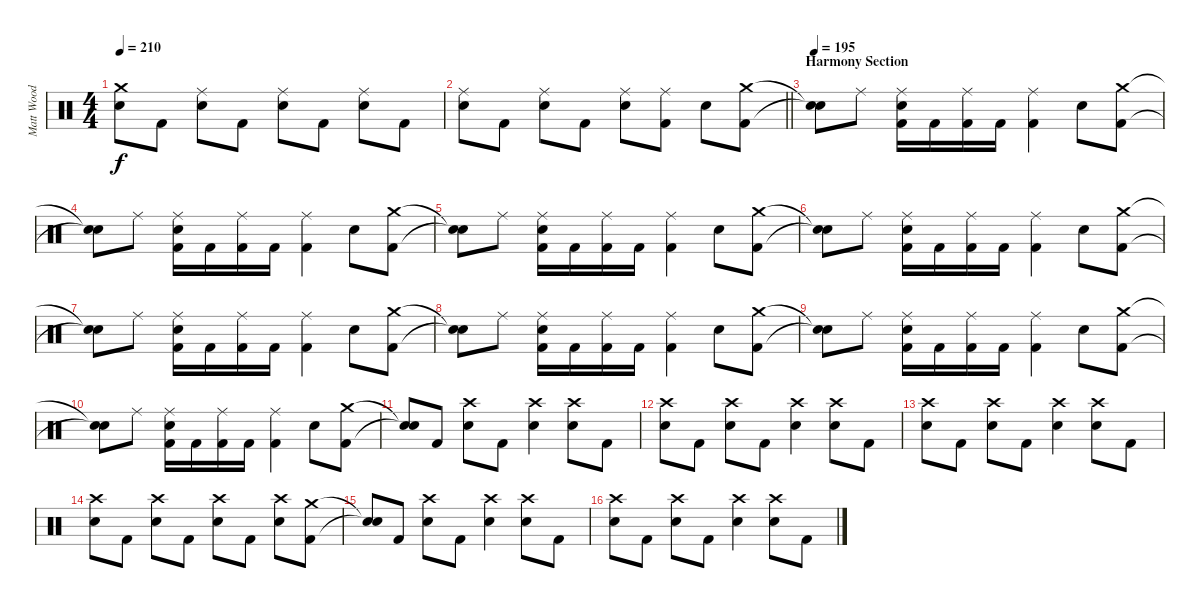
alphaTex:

\track ("Matt Wood" "Matt Wood") {instrument percussion}
\staff {score}
\articulation defaults
\ts (4 4)
\tempo 210
\clef neutral
\ks c
("Crash medium (hit)"{t} "Snare (hit)"{t}).8{dy f} "Kick (hit) 2".8 ("Ride (middle)" "Snare (hit) 2").8 "Kick (hit) 2".8 ("Ride (middle)" "Snare (hit) 2").8 "Kick (hit) 2".8 ("Ride (middle)" "Snare (hit) 2").8 "Kick (hit) 2".8 |
\barLineRight lightlight
("Ride (middle)" "Snare (hit) 2").8 "Kick (hit) 2".8 ("Ride (middle)" "Snare (hit) 2").8 "Kick (hit) 2".8 ("Ride (middle)" "Snare (hit) 2").8 ("Ride (middle)" "Kick (hit) 2").8 "Snare (hit) 2".8 ("Crash medium (hit)" "Kick (hit) 2").8 |
\section ("" "Harmony Section")
\tempo 195
("Snare (hit)"{t} "Snare (hit)"{t}).8 "Ride (middle)".8 ("Ride (middle)" "Snare (hit) 2" "Kick (hit) 2").16 "Kick (hit) 2".16 ("Ride (middle)" "Kick (hit) 2").16 "Kick (hit) 2".16 ("Ride (middle)" "Kick (hit) 2").4 "Snare (hit) 2".8 ("Crash medium (hit)" "Kick (hit) 2").8 |
("Snare (hit)"{t} "Snare (hit)"{t}).8 "Ride (middle)".8 ("Ride (middle)" "Snare (hit) 2" "Kick (hit) 2").16 "Kick (hit) 2".16 ("Ride (middle)" "Kick (hit) 2").16 "Kick (hit) 2".16 ("Ride (middle)" "Kick (hit) 2").4 "Snare (hit) 2".8 ("Crash medium (hit)" "Kick (hit) 2").8 |
("Snare (hit)"{t} "Snare (hit)"{t}).8 "Ride (middle)".8 ("Ride (middle)" "Snare (hit) 2" "Kick (hit) 2").16 "Kick (hit) 2".16 ("Ride (middle)" "Kick (hit) 2").16 "Kick (hit) 2".16 ("Ride (middle)" "Kick (hit) 2").4 "Snare (hit) 2".8 ("Crash medium (hit)" "Kick (hit) 2").8 |
("Snare (hit)"{t} "Snare (hit)"{t}).8 "Ride (middle)".8 ("Ride (middle)" "Snare (hit) 2" "Kick (hit) 2").16 "Kick (hit) 2".16 ("Ride (middle)" "Kick (hit) 2").16 "Kick (hit) 2".16 ("Ride (middle)" "Kick (hit) 2").4 "Snare (hit) 2".8 ("Crash medium (hit)" "Kick (hit) 2").8 |
("Snare (hit)"{t} "Snare (hit)"{t}).8 "Ride (middle)".8 ("Ride (middle)" "Snare (hit) 2" "Kick (hit) 2").16 "Kick (hit) 2".16 ("Ride (middle)" "Kick (hit) 2").16 "Kick (hit) 2".16 ("Ride (middle)" "Kick (hit) 2").4 "Snare (hit) 2".8 ("Crash medium (hit)" "Kick (hit) 2").8 |
("Snare (hit)"{t} "Snare (hit)"{t}).8 "Ride (middle)".8 ("Ride (middle)" "Snare (hit) 2" "Kick (hit) 2").16 "Kick (hit) 2".16 ("Ride (middle)" "Kick (hit) 2").16 "Kick (hit) 2".16 ("Ride (middle)" "Kick (hit) 2").4 "Snare (hit) 2".8 ("Crash medium (hit)" "Kick (hit) 2").8 |
("Snare (hit)"{t} "Snare (hit)"{t}).8 "Ride (middle)".8 ("Ride (middle)" "Snare (hit) 2" "Kick (hit) 2").16 "Kick (hit) 2".16 ("Ride (middle)" "Kick (hit) 2").16 "Kick (hit) 2".16 ("Ride (middle)" "Kick (hit) 2").4 "Snare (hit) 2".8 ("Crash medium (hit)" "Kick (hit) 2").8 |
("Snare (hit)"{t} "Snare (hit)"{t}).8 "Ride (middle)".8 ("Ride (middle)" "Snare (hit) 2" "Kick (hit) 2").16 "Kick (hit) 2".16 ("Ride (middle)" "Kick (hit) 2").16 "Kick (hit) 2".16 ("Ride (middle)" "Kick (hit) 2").4 "Snare (hit) 2".8 ("Crash medium (hit)" "Kick (hit) 2").8 |
("Snare (hit)"{t} "Snare (hit)"{t}).8 "Kick (hit) 2".8 ("Crash high (hit)" "Snare (hit) 2").8 "Kick (hit) 2".8 ("Crash high (hit)" "Snare (hit) 2").4 ("Crash high (hit)" "Snare (hit) 2").8 "Kick (hit) 2".8 |
("Crash high (hit)" "Snare (hit) 2").8 "Kick (hit) 2".8 ("Crash high (hit)" "Snare (hit) 2").8 "Kick (hit) 2".8 ("Crash high (hit)" "Snare (hit) 2").4 ("Crash high (hit)" "Snare (hit) 2").8 "Kick (hit) 2".8 |
("Crash high (hit)" "Snare (hit) 2").8 "Kick (hit) 2".8 ("Crash high (hit)" "Snare (hit) 2").8 "Kick (hit) 2".8 ("Crash high (hit)" "Snare (hit) 2").4 ("Crash high (hit)" "Snare (hit) 2").8 "Kick (hit) 2".8 |
("Crash high (hit)" "Snare (hit) 2").8 "Kick (hit) 2".8 ("Crash high (hit)" "Snare (hit) 2").8 "Kick (hit) 2".8 ("Crash high (hit)" "Snare (hit) 2").8 "Kick (hit) 2".8 ("Crash high (hit)" "Snare (hit) 2").8 ("Crash medium (hit)" "Kick (hit) 2").8 |
("Snare (hit)"{t} "Snare (hit)"{t}).8 "Kick (hit) 2".8 ("Crash high (hit)" "Snare (hit) 2").8 "Kick (hit) 2".8 ("Crash high (hit)" "Snare (hit) 2").4 ("Crash high (hit)" "Snare (hit) 2").8 "Kick (hit) 2".8 |
("Crash high (hit)" "Snare (hit) 2").8 "Kick (hit) 2".8 ("Crash high (hit)" "Snare (hit) 2").8 "Kick (hit) 2".8 ("Crash high (hit)" "Snare (hit) 2").4 ("Crash high (hit)" "Snare (hit) 2").8 "Kick (hit) 2".8
